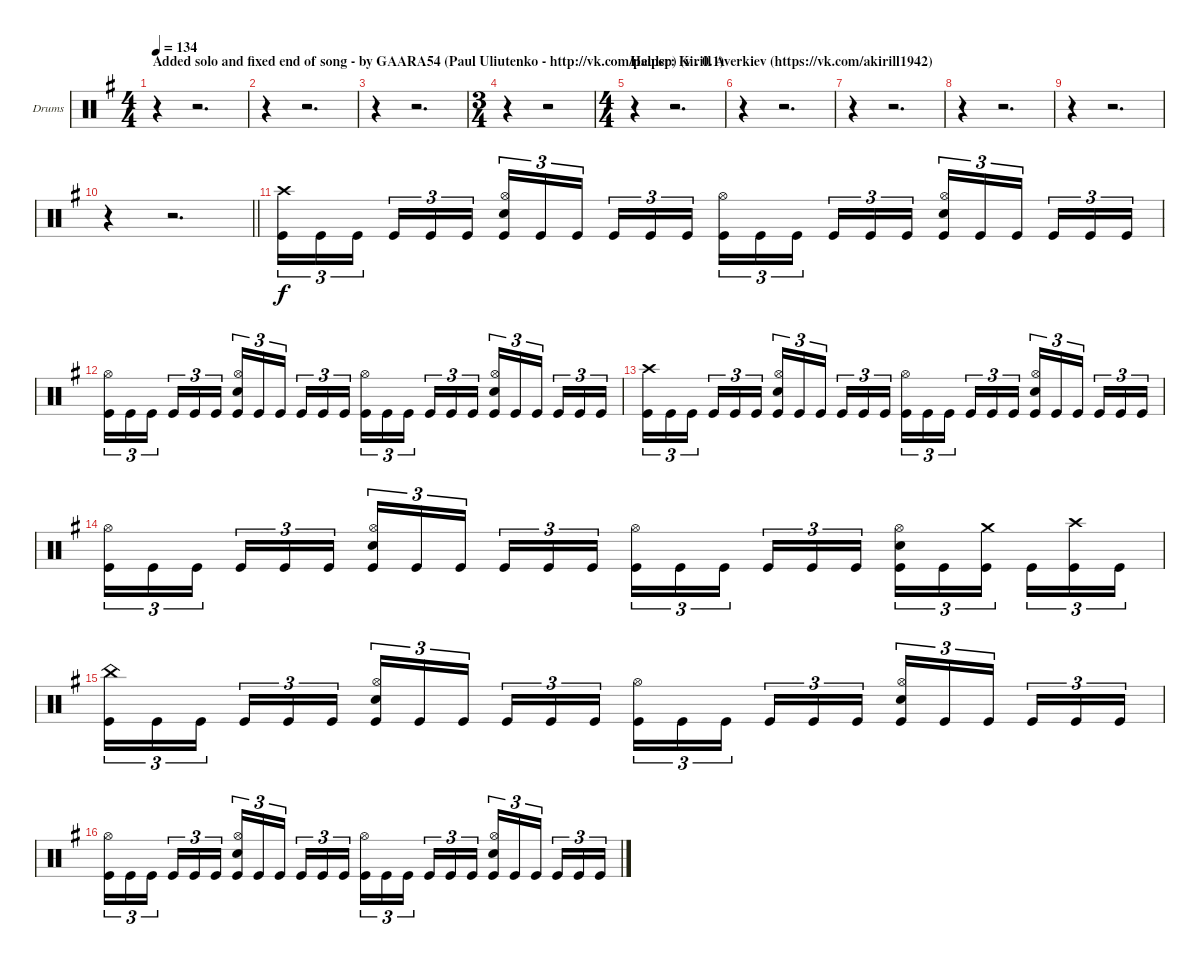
\bracketExtendMode groupsimilarinstruments
\firstSystemTrackNameOrientation horizontal
\otherSystemsTrackNameOrientation horizontal
\track ("Drumkit" "Drums") {instrument percussion}
\staff {score}
\articulation defaults
\ts (4 4)
\section ("" "Added solo and fixed end of song - by GAARA54 (Paul Uliutenko - http://vk.com/paulsp) (v . 0.1)")
\tempo 134
\clef neutral
\scale
0.622881
\ks g
r.4{dy f} r.2{d} |
\scale
0.377119 r.4 r.2{d} |
\scale
0.388646 r.4 r.2{d} |
\ts (3 4)
\scale
0.611354 r.4 r.2 |
\ts (4 4)
\section ("" "Helper: Kirill Averkiev (https://vk.com/akirill1942)")
\scale
0.622881 r.4 r.2{d} |
\scale
0.377119 r.4 r.2{d} |
\scale
0.5 r.4 r.2{d} |
\scale
0.5 r.4 r.2{d} |
\scale
0.5 r.4 r.2{d} |
\scale
0.5
\barLineRight lightlight
r.4 r.2{d} |
\section ("" "")
\scale
0.5 ("Crash high (hit)" "Kick (hit)").16{tu (3 2)} "Kick (hit)".16{tu (3 2)} "Kick (hit)".16{tu (3 2)} "Kick (hit)".16{tu (3 2)} "Kick (hit)".16{tu (3 2)} "Kick (hit)".16{tu (3 2)} ("Hi-Hat (open)" "Snare (hit) 2" "Kick (hit)").16{tu (3 2)} "Kick (hit)".16{tu (3 2)} "Kick (hit)".16{tu (3 2)} "Kick (hit)".16{tu (3 2)} "Kick (hit)".16{tu (3 2)} "Kick (hit)".16{tu (3 2)} ("Hi-Hat (open)" "Kick (hit)").16{tu (3 2)} "Kick (hit)".16{tu (3 2)} "Kick (hit)".16{tu (3 2)} "Kick (hit)".16{tu (3 2)} "Kick (hit)".16{tu (3 2)} "Kick (hit)".16{tu (3 2)} ("Hi-Hat (open)" "Snare (hit) 2" "Kick (hit)").16{tu (3 2)} "Kick (hit)".16{tu (3 2)} "Kick (hit)".16{tu (3 2)} "Kick (hit)".16{tu (3 2)} "Kick (hit)".16{tu (3 2)} "Kick (hit)".16{tu (3 2)} |
\scale
0.5 ("Hi-Hat (open)" "Kick (hit)").16{tu (3 2)} "Kick (hit)".16{tu (3 2)} "Kick (hit)".16{tu (3 2)} "Kick (hit)".16{tu (3 2)} "Kick (hit)".16{tu (3 2)} "Kick (hit)".16{tu (3 2)} ("Hi-Hat (open)" "Snare (hit) 2" "Kick (hit)").16{tu (3 2)} "Kick (hit)".16{tu (3 2)} "Kick (hit)".16{tu (3 2)} "Kick (hit)".16{tu (3 2)} "Kick (hit)".16{tu (3 2)} "Kick (hit)".16{tu (3 2)} ("Hi-Hat (open)" "Kick (hit)").16{tu (3 2)} "Kick (hit)".16{tu (3 2)} "Kick (hit)".16{tu (3 2)} "Kick (hit)".16{tu (3 2)} "Kick (hit)".16{tu (3 2)} "Kick (hit)".16{tu (3 2)} ("Hi-Hat (open)" "Snare (hit) 2" "Kick (hit)").16{tu (3 2)} "Kick (hit)".16{tu (3 2)} "Kick (hit)".16{tu (3 2)} "Kick (hit)".16{tu (3 2)} "Kick (hit)".16{tu (3 2)} "Kick (hit)".16{tu (3 2)} |
\scale
0.5 ("Crash high (hit)" "Kick (hit)").16{tu (3 2)} "Kick (hit)".16{tu (3 2)} "Kick (hit)".16{tu (3 2)} "Kick (hit)".16{tu (3 2)} "Kick (hit)".16{tu (3 2)} "Kick (hit)".16{tu (3 2)} ("Hi-Hat (open)" "Snare (hit) 2" "Kick (hit)").16{tu (3 2)} "Kick (hit)".16{tu (3 2)} "Kick (hit)".16{tu (3 2)} "Kick (hit)".16{tu (3 2)} "Kick (hit)".16{tu (3 2)} "Kick (hit)".16{tu (3 2)} ("Hi-Hat (open)" "Kick (hit)").16{tu (3 2)} "Kick (hit)".16{tu (3 2)} "Kick (hit)".16{tu (3 2)} "Kick (hit)".16{tu (3 2)} "Kick (hit)".16{tu (3 2)} "Kick (hit)".16{tu (3 2)} ("Hi-Hat (open)" "Snare (hit) 2" "Kick (hit)").16{tu (3 2)} "Kick (hit)".16{tu (3 2)} "Kick (hit)".16{tu (3 2)} "Kick (hit)".16{tu (3 2)} "Kick (hit)".16{tu (3 2)} "Kick (hit)".16{tu (3 2)} |
\scale
0.5 ("Hi-Hat (open)" "Kick (hit)").16{tu (3 2)} "Kick (hit)".16{tu (3 2)} "Kick (hit)".16{tu (3 2)} "Kick (hit)".16{tu (3 2)} "Kick (hit)".16{tu (3 2)} "Kick (hit)".16{tu (3 2)} ("Hi-Hat (open)" "Snare (hit) 2" "Kick (hit)").16{tu (3 2)} "Kick (hit)".16{tu (3 2)} "Kick (hit)".16{tu (3 2)} "Kick (hit)".16{tu (3 2)} "Kick (hit)".16{tu (3 2)} "Kick (hit)".16{tu (3 2)} ("Hi-Hat (open)" "Kick (hit)").16{tu (3 2)} "Kick (hit)".16{tu (3 2)} "Kick (hit)".16{tu (3 2)} "Kick (hit)".16{tu (3 2)} "Kick (hit)".16{tu (3 2)} "Kick (hit)".16{tu (3 2)} ("Hi-Hat (open)" "Snare (hit) 2" "Kick (hit)").16{tu (3 2)} "Kick (hit)".16{tu (3 2)} ("Crash medium (hit)" "Kick (hit)").16{tu (3 2)} "Kick (hit)".16{tu (3 2)} ("Crash high (hit)" "Kick (hit)").16{tu (3 2)} "Kick (hit)".16{tu (3 2)} |
\scale
0.5 ("China (hit)" "Kick (hit)").16{tu (3 2)} "Kick (hit)".16{tu (3 2)} "Kick (hit)".16{tu (3 2)} "Kick (hit)".16{tu (3 2)} "Kick (hit)".16{tu (3 2)} "Kick (hit)".16{tu (3 2)} ("Hi-Hat (open)" "Snare (hit) 2" "Kick (hit)").16{tu (3 2)} "Kick (hit)".16{tu (3 2)} "Kick (hit)".16{tu (3 2)} "Kick (hit)".16{tu (3 2)} "Kick (hit)".16{tu (3 2)} "Kick (hit)".16{tu (3 2)} ("Hi-Hat (open)" "Kick (hit)").16{tu (3 2)} "Kick (hit)".16{tu (3 2)} "Kick (hit)".16{tu (3 2)} "Kick (hit)".16{tu (3 2)} "Kick (hit)".16{tu (3 2)} "Kick (hit)".16{tu (3 2)} ("Hi-Hat (open)" "Snare (hit) 2" "Kick (hit)").16{tu (3 2)} "Kick (hit)".16{tu (3 2)} "Kick (hit)".16{tu (3 2)} "Kick (hit)".16{tu (3 2)} "Kick (hit)".16{tu (3 2)} "Kick (hit)".16{tu (3 2)} |
\scale
0.5 ("Hi-Hat (open)" "Kick (hit)").16{tu (3 2)} "Kick (hit)".16{tu (3 2)} "Kick (hit)".16{tu (3 2)} "Kick (hit)".16{tu (3 2)} "Kick (hit)".16{tu (3 2)} "Kick (hit)".16{tu (3 2)} ("Hi-Hat (open)" "Snare (hit) 2" "Kick (hit)").16{tu (3 2)} "Kick (hit)".16{tu (3 2)} "Kick (hit)".16{tu (3 2)} "Kick (hit)".16{tu (3 2)} "Kick (hit)".16{tu (3 2)} "Kick (hit)".16{tu (3 2)} ("Hi-Hat (open)" "Kick (hit)").16{tu (3 2)} "Kick (hit)".16{tu (3 2)} "Kick (hit)".16{tu (3 2)} "Kick (hit)".16{tu (3 2)} "Kick (hit)".16{tu (3 2)} "Kick (hit)".16{tu (3 2)} ("Hi-Hat (open)" "Snare (hit) 2" "Kick (hit)").16{tu (3 2)} "Kick (hit)".16{tu (3 2)} "Kick (hit)".16{tu (3 2)} "Kick (hit)".16{tu (3 2)} "Kick (hit)".16{tu (3 2)} "Kick (hit)".16{tu (3 2)}
